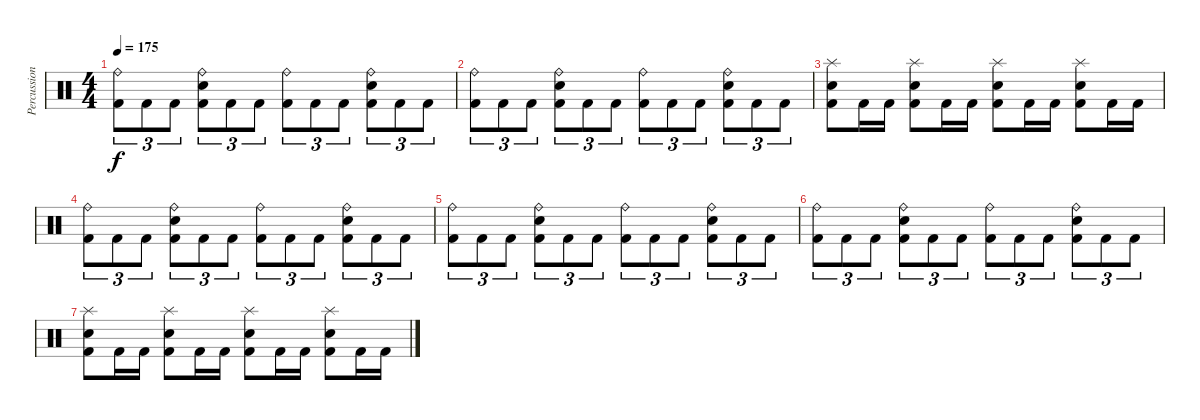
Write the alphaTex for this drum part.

\track ("Percussion" "Percussion") {instrument percussion}
\staff {score}
\articulation defaults
\ts (4 4)
\tempo 175
\clef neutral
\ks c
("Ride (bell)" "Kick (hit) 2").8{tu (3 2) dy f} "Kick (hit) 2".8{tu (3 2)} "Kick (hit) 2".8{tu (3 2)} ("Ride (bell)" "Electric Snare (hit)" "Kick (hit) 2").8{tu (3 2)} "Kick (hit) 2".8{tu (3 2)} "Kick (hit) 2".8{tu (3 2)} ("Ride (bell)" "Kick (hit) 2").8{tu (3 2)} "Kick (hit) 2".8{tu (3 2)} "Kick (hit) 2".8{tu (3 2)} ("Ride (bell)" "Electric Snare (hit)" "Kick (hit) 2").8{tu (3 2)} "Kick (hit) 2".8{tu (3 2)} "Kick (hit) 2".8{tu (3 2)} |
("Ride (bell)" "Kick (hit) 2").8{tu (3 2)} "Kick (hit) 2".8{tu (3 2)} "Kick (hit) 2".8{tu (3 2)} ("Ride (bell)" "Electric Snare (hit)" "Kick (hit) 2").8{tu (3 2)} "Kick (hit) 2".8{tu (3 2)} "Kick (hit) 2".8{tu (3 2)} ("Ride (bell)" "Kick (hit) 2").8{tu (3 2)} "Kick (hit) 2".8{tu (3 2)} "Kick (hit) 2".8{tu (3 2)} ("Ride (bell)" "Electric Snare (hit)" "Kick (hit) 2").8{tu (3 2)} "Kick (hit) 2".8{tu (3 2)} "Kick (hit) 2".8{tu (3 2)} |
("Splash (hit)" "Electric Snare (hit)" "Kick (hit) 2").8 "Kick (hit) 2".16 "Kick (hit) 2".16 ("Splash (hit)" "Electric Snare (hit)" "Kick (hit) 2").8 "Kick (hit) 2".16 "Kick (hit) 2".16 ("Splash (hit)" "Electric Snare (hit)" "Kick (hit) 2").8 "Kick (hit) 2".16 "Kick (hit) 2".16 ("Splash (hit)" "Electric Snare (hit)" "Kick (hit) 2").8 "Kick (hit) 2".16 "Kick (hit) 2".16 |
("Ride (bell)" "Kick (hit) 2").8{tu (3 2)} "Kick (hit) 2".8{tu (3 2)} "Kick (hit) 2".8{tu (3 2)} ("Ride (bell)" "Electric Snare (hit)" "Kick (hit) 2").8{tu (3 2)} "Kick (hit) 2".8{tu (3 2)} "Kick (hit) 2".8{tu (3 2)} ("Ride (bell)" "Kick (hit) 2").8{tu (3 2)} "Kick (hit) 2".8{tu (3 2)} "Kick (hit) 2".8{tu (3 2)} ("Ride (bell)" "Electric Snare (hit)" "Kick (hit) 2").8{tu (3 2)} "Kick (hit) 2".8{tu (3 2)} "Kick (hit) 2".8{tu (3 2)} |
("Ride (bell)" "Kick (hit) 2").8{tu (3 2)} "Kick (hit) 2".8{tu (3 2)} "Kick (hit) 2".8{tu (3 2)} ("Ride (bell)" "Electric Snare (hit)" "Kick (hit) 2").8{tu (3 2)} "Kick (hit) 2".8{tu (3 2)} "Kick (hit) 2".8{tu (3 2)} ("Ride (bell)" "Kick (hit) 2").8{tu (3 2)} "Kick (hit) 2".8{tu (3 2)} "Kick (hit) 2".8{tu (3 2)} ("Ride (bell)" "Electric Snare (hit)" "Kick (hit) 2").8{tu (3 2)} "Kick (hit) 2".8{tu (3 2)} "Kick (hit) 2".8{tu (3 2)} |
("Ride (bell)" "Kick (hit) 2").8{tu (3 2)} "Kick (hit) 2".8{tu (3 2)} "Kick (hit) 2".8{tu (3 2)} ("Ride (bell)" "Electric Snare (hit)" "Kick (hit) 2").8{tu (3 2)} "Kick (hit) 2".8{tu (3 2)} "Kick (hit) 2".8{tu (3 2)} ("Ride (bell)" "Kick (hit) 2").8{tu (3 2)} "Kick (hit) 2".8{tu (3 2)} "Kick (hit) 2".8{tu (3 2)} ("Ride (bell)" "Electric Snare (hit)" "Kick (hit) 2").8{tu (3 2)} "Kick (hit) 2".8{tu (3 2)} "Kick (hit) 2".8{tu (3 2)} |
("Splash (hit)" "Electric Snare (hit)" "Kick (hit) 2").8 "Kick (hit) 2".16 "Kick (hit) 2".16 ("Splash (hit)" "Electric Snare (hit)" "Kick (hit) 2").8 "Kick (hit) 2".16 "Kick (hit) 2".16 ("Splash (hit)" "Electric Snare (hit)" "Kick (hit) 2").8 "Kick (hit) 2".16 "Kick (hit) 2".16 ("Splash (hit)" "Electric Snare (hit)" "Kick (hit) 2").8 "Kick (hit) 2".16 "Kick (hit) 2".16
